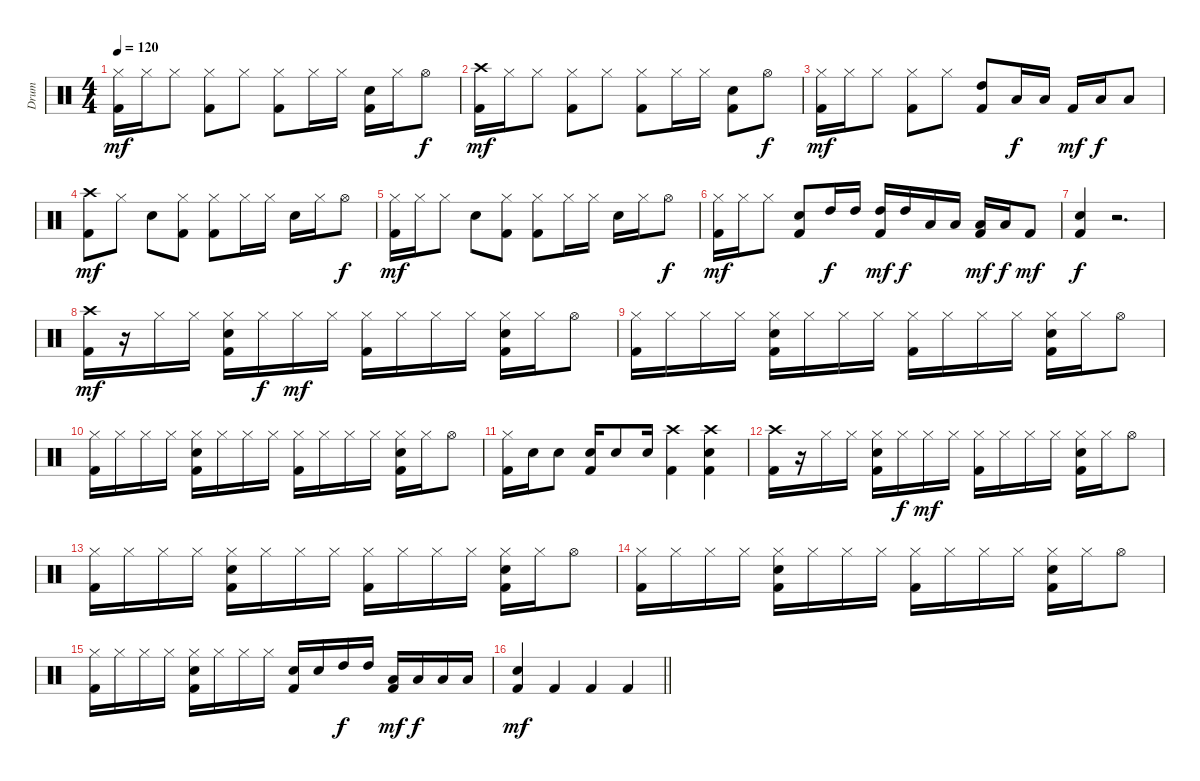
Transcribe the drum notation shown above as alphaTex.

\track ("Drum" "Drum") {instrument percussion}
\staff {score}
\articulation defaults
\ts (4 4)
\tempo 120
\clef neutral
\ks c
("Hi-Hat (closed)" "Kick (hit) 2").16{dy mf} "Hi-Hat (closed)".16 "Hi-Hat (closed)".8 ("Hi-Hat (closed)" "Kick (hit) 2").8 "Hi-Hat (closed)".8 ("Hi-Hat (closed)" "Kick (hit) 2").8 "Hi-Hat (closed)".16 "Hi-Hat (closed)".16 ("Snare (hit) 2" "Kick (hit) 2").16 "Hi-Hat (closed)".16 "Hi-Hat (open)".8{dy f} |
("Crash high (hit)" "Kick (hit) 2").16{dy mf} "Hi-Hat (closed)".16 "Hi-Hat (closed)".8 ("Hi-Hat (closed)" "Kick (hit) 2").8 "Hi-Hat (closed)".8 ("Hi-Hat (closed)" "Kick (hit) 2").8 "Hi-Hat (closed)".16 "Hi-Hat (closed)".16 ("Snare (hit) 2" "Kick (hit) 2").8 "Hi-Hat (open)".8{dy f} |
("Hi-Hat (closed)" "Kick (hit) 2").16{dy mf} "Hi-Hat (closed)".16 "Hi-Hat (closed)".8 ("Hi-Hat (closed)" "Kick (hit) 2").8 "Hi-Hat (closed)".8 ("High Tom (hit)" "Kick (hit) 2").8 "Low Tom (hit)".16{dy f} "Low Tom (hit)".16 "Kick (hit) 2".16{dy mf} "Low Floor Tom (hit)".16{dy f} "Low Floor Tom (hit)".8 |
("Crash high (hit)" "Kick (hit) 2").8{dy mf} "Hi-Hat (closed)".8 "Snare (hit) 2".8 ("Hi-Hat (closed)" "Kick (hit) 2").8 ("Hi-Hat (closed)" "Kick (hit) 2").8 "Hi-Hat (closed)".16 "Hi-Hat (closed)".16 "Snare (hit) 2".16 "Hi-Hat (closed)".16 "Hi-Hat (open)".8{dy f} |
("Hi-Hat (closed)" "Kick (hit) 2").16{dy mf} "Hi-Hat (closed)".16 "Hi-Hat (closed)".8 "Snare (hit) 2".8 ("Hi-Hat (closed)" "Kick (hit) 2").8 ("Hi-Hat (closed)" "Kick (hit) 2").8 "Hi-Hat (closed)".16 "Hi-Hat (closed)".16 "Snare (hit) 2".16 "Hi-Hat (closed)".16 "Hi-Hat (open)".8{dy f} |
("Hi-Hat (closed)" "Kick (hit) 2").16{dy mf} "Hi-Hat (closed)".16 "Hi-Hat (closed)".8 ("Snare (hit) 2" "Kick (hit) 2").8 "High Tom (hit)".16{dy f} "High Tom (hit)".16 ("High Tom (hit)" "Kick (hit) 2").16{dy mf} "High Tom (hit)".16{dy f} "Low Tom (hit)".16 "Low Tom (hit)".16 ("Low Floor Tom (hit)" "Kick (hit) 2").16{dy mf} "Low Floor Tom (hit)".16{dy f} "Kick (hit) 2".8{dy mf} |
("Snare (hit) 2" "Kick (hit) 2").4{dy f} r.2{d} |
("Crash high (hit)" "Kick (hit) 2").16{dy mf} r.16 "Hi-Hat (closed)".16 "Hi-Hat (closed)".16 ("Hi-Hat (closed)" "Snare (hit) 2" "Kick (hit) 2").16 "Hi-Hat (closed)".16{dy f} "Hi-Hat (closed)".16{dy mf} "Hi-Hat (closed)".16 ("Hi-Hat (closed)" "Kick (hit) 2").16 "Hi-Hat (closed)".16 "Hi-Hat (closed)".16 "Hi-Hat (closed)".16 ("Hi-Hat (closed)" "Snare (hit) 2" "Kick (hit) 2").16 "Hi-Hat (closed)".16 "Hi-Hat (open)".8 |
("Hi-Hat (closed)" "Kick (hit) 2").16 "Hi-Hat (closed)".16 "Hi-Hat (closed)".16 "Hi-Hat (closed)".16 ("Hi-Hat (closed)" "Snare (hit) 2" "Kick (hit) 2").16 "Hi-Hat (closed)".16 "Hi-Hat (closed)".16 "Hi-Hat (closed)".16 ("Hi-Hat (closed)" "Kick (hit) 2").16 "Hi-Hat (closed)".16 "Hi-Hat (closed)".16 "Hi-Hat (closed)".16 ("Hi-Hat (closed)" "Snare (hit) 2" "Kick (hit) 2").16 "Hi-Hat (closed)".16 "Hi-Hat (open)".8 |
("Hi-Hat (closed)" "Kick (hit) 2").16 "Hi-Hat (closed)".16 "Hi-Hat (closed)".16 "Hi-Hat (closed)".16 ("Hi-Hat (closed)" "Snare (hit) 2" "Kick (hit) 2").16 "Hi-Hat (closed)".16 "Hi-Hat (closed)".16 "Hi-Hat (closed)".16 ("Hi-Hat (closed)" "Kick (hit) 2").16 "Hi-Hat (closed)".16 "Hi-Hat (closed)".16 "Hi-Hat (closed)".16 ("Hi-Hat (closed)" "Snare (hit) 2" "Kick (hit) 2").16 "Hi-Hat (closed)".16 "Hi-Hat (open)".8 |
("Hi-Hat (closed)" "Kick (hit) 2").16 "Snare (hit) 2".16 "Snare (hit) 2".8 ("Snare (hit) 2" "Kick (hit) 2").16 "Snare (hit) 2".8 "Snare (hit) 2".16 ("Crash high (hit)" "Kick (hit) 2").4 ("Crash high (hit)" "Snare (hit) 2" "Kick (hit) 2").4 |
("Crash high (hit)" "Kick (hit) 2").16 r.16 "Hi-Hat (closed)".16 "Hi-Hat (closed)".16 ("Hi-Hat (closed)" "Snare (hit) 2" "Kick (hit) 2").16 "Hi-Hat (closed)".16{dy f} "Hi-Hat (closed)".16{dy mf} "Hi-Hat (closed)".16 ("Hi-Hat (closed)" "Kick (hit) 2").16 "Hi-Hat (closed)".16 "Hi-Hat (closed)".16 "Hi-Hat (closed)".16 ("Hi-Hat (closed)" "Snare (hit) 2" "Kick (hit) 2").16 "Hi-Hat (closed)".16 "Hi-Hat (open)".8 |
("Hi-Hat (closed)" "Kick (hit) 2").16 "Hi-Hat (closed)".16 "Hi-Hat (closed)".16 "Hi-Hat (closed)".16 ("Hi-Hat (closed)" "Snare (hit) 2" "Kick (hit) 2").16 "Hi-Hat (closed)".16 "Hi-Hat (closed)".16 "Hi-Hat (closed)".16 ("Hi-Hat (closed)" "Kick (hit) 2").16 "Hi-Hat (closed)".16 "Hi-Hat (closed)".16 "Hi-Hat (closed)".16 ("Hi-Hat (closed)" "Snare (hit) 2" "Kick (hit) 2").16 "Hi-Hat (closed)".16 "Hi-Hat (open)".8 |
("Hi-Hat (closed)" "Kick (hit) 2").16 "Hi-Hat (closed)".16 "Hi-Hat (closed)".16 "Hi-Hat (closed)".16 ("Hi-Hat (closed)" "Snare (hit) 2" "Kick (hit) 2").16 "Hi-Hat (closed)".16 "Hi-Hat (closed)".16 "Hi-Hat (closed)".16 ("Hi-Hat (closed)" "Kick (hit) 2").16 "Hi-Hat (closed)".16 "Hi-Hat (closed)".16 "Hi-Hat (closed)".16 ("Hi-Hat (closed)" "Snare (hit) 2" "Kick (hit) 2").16 "Hi-Hat (closed)".16 "Hi-Hat (open)".8 |
("Hi-Hat (closed)" "Kick (hit) 2").16 "Hi-Hat (closed)".16 "Hi-Hat (closed)".16 "Hi-Hat (closed)".16 ("Hi-Hat (closed)" "Snare (hit) 2" "Kick (hit) 2").16 "Hi-Hat (closed)".16 "Hi-Hat (closed)".16 "Hi-Hat (closed)".16 ("Snare (hit) 2" "Kick (hit) 2").16 "Snare (hit) 2".16 "High Tom (hit)".16{dy f} "High Tom (hit)".16 ("Low Tom (hit)" "Kick (hit) 2").16{dy mf} "Low Tom (hit)".16{dy f} "Low Floor Tom (hit)".16 "Low Floor Tom (hit)".16 |
\barLineRight lightlight
("Snare (hit) 2" "Kick (hit) 2").4{dy mf} "Kick (hit) 2".4 "Kick (hit) 2".4 "Kick (hit) 2".4
